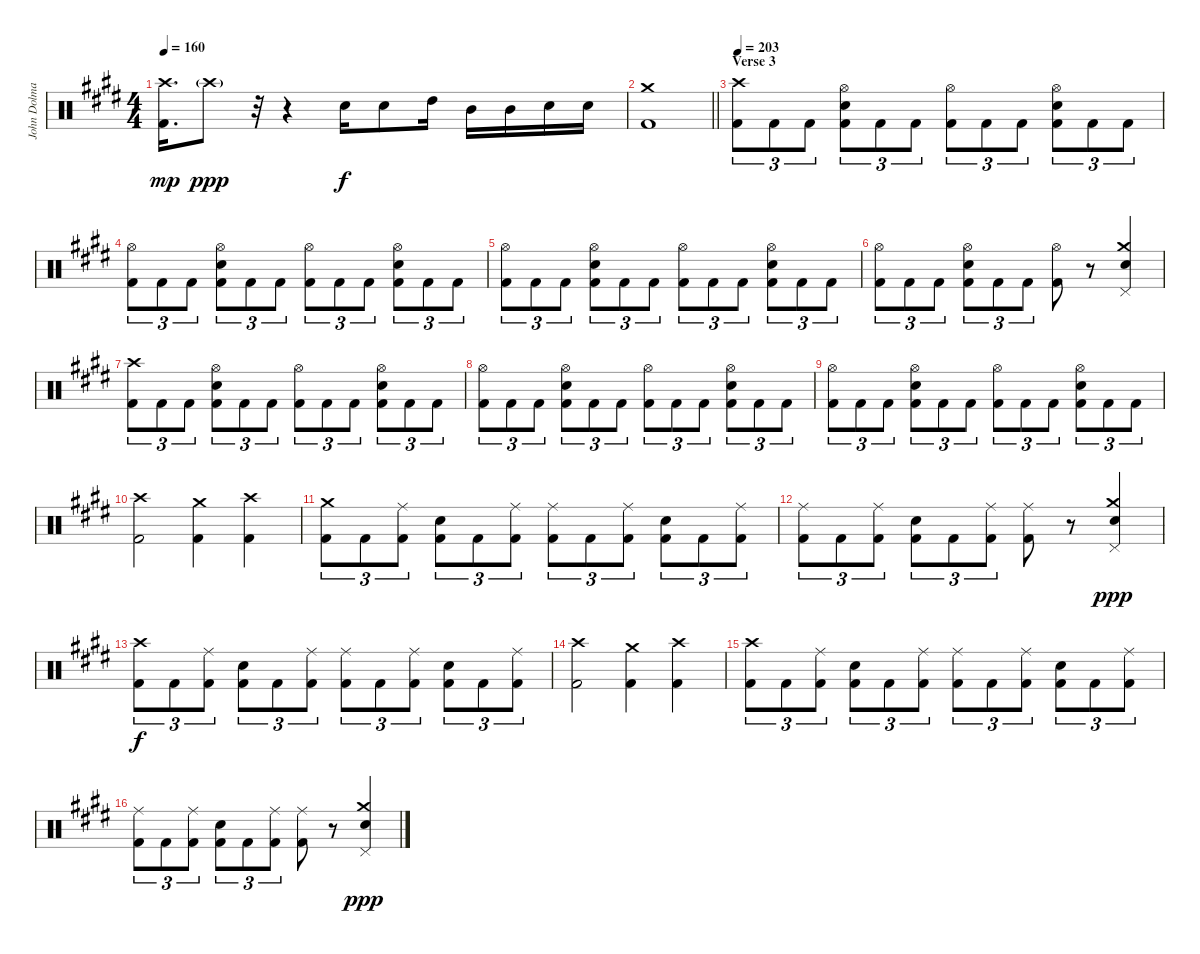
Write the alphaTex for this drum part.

\track ("John Dolmayan [Drums]" "John Dolma") {instrument percussion}
\staff {score}
\articulation defaults
\ts (4 4)
\tempo 160
\clef neutral
\ks c#minor
("Crash high (hit)" "Kick (hit) 2").16{d dy mp} "Crash high (hit)"{g}.8{dy ppp} r.32 r.4 "Electric Snare (hit)".16{dy f} "Electric Snare (hit)".8 "High Tom (hit)".16 "Mid Tom (hit)".16 "Mid Tom (hit)".16 "Electric Snare (hit)".16 "Electric Snare (hit)".16 |
\barLineRight lightlight
("Crash medium (hit)" "Kick (hit) 2").1 |
\section ("" "Verse 3")
\tempo 203
("Crash high (hit)" "Kick (hit) 2").8{tu (3 2)} "Kick (hit) 2".8{tu (3 2)} "Kick (hit) 2".8{tu (3 2)} ("Hi-Hat (open)" "Electric Snare (hit)" "Kick (hit) 2").8{tu (3 2)} "Kick (hit) 2".8{tu (3 2)} "Kick (hit) 2".8{tu (3 2)} ("Hi-Hat (open)" "Kick (hit) 2").8{tu (3 2)} "Kick (hit) 2".8{tu (3 2)} "Kick (hit) 2".8{tu (3 2)} ("Hi-Hat (open)" "Electric Snare (hit)" "Kick (hit) 2").8{tu (3 2)} "Kick (hit) 2".8{tu (3 2)} "Kick (hit) 2".8{tu (3 2)} |
("Hi-Hat (open)" "Kick (hit) 2").8{tu (3 2)} "Kick (hit) 2".8{tu (3 2)} "Kick (hit) 2".8{tu (3 2)} ("Hi-Hat (open)" "Electric Snare (hit)" "Kick (hit) 2").8{tu (3 2)} "Kick (hit) 2".8{tu (3 2)} "Kick (hit) 2".8{tu (3 2)} ("Hi-Hat (open)" "Kick (hit) 2").8{tu (3 2)} "Kick (hit) 2".8{tu (3 2)} "Kick (hit) 2".8{tu (3 2)} ("Hi-Hat (open)" "Electric Snare (hit)" "Kick (hit) 2").8{tu (3 2)} "Kick (hit) 2".8{tu (3 2)} "Kick (hit) 2".8{tu (3 2)} |
("Hi-Hat (open)" "Kick (hit) 2").8{tu (3 2)} "Kick (hit) 2".8{tu (3 2)} "Kick (hit) 2".8{tu (3 2)} ("Hi-Hat (open)" "Electric Snare (hit)" "Kick (hit) 2").8{tu (3 2)} "Kick (hit) 2".8{tu (3 2)} "Kick (hit) 2".8{tu (3 2)} ("Hi-Hat (open)" "Kick (hit) 2").8{tu (3 2)} "Kick (hit) 2".8{tu (3 2)} "Kick (hit) 2".8{tu (3 2)} ("Hi-Hat (open)" "Electric Snare (hit)" "Kick (hit) 2").8{tu (3 2)} "Kick (hit) 2".8{tu (3 2)} "Kick (hit) 2".8{tu (3 2)} |
("Hi-Hat (open)" "Kick (hit) 2").8{tu (3 2)} "Kick (hit) 2".8{tu (3 2)} "Kick (hit) 2".8{tu (3 2)} ("Hi-Hat (open)" "Electric Snare (hit)" "Kick (hit) 2").8{tu (3 2)} "Kick (hit) 2".8{tu (3 2)} "Kick (hit) 2".8{tu (3 2)} ("Hi-Hat (open)" "Kick (hit) 2").8 r.8 ("Crash medium (hit)" "Pedal Hi-Hat (hit)" "Electric Snare (hit)").4 |
("Crash high (hit)" "Kick (hit) 2").8{tu (3 2)} "Kick (hit) 2".8{tu (3 2)} "Kick (hit) 2".8{tu (3 2)} ("Hi-Hat (open)" "Electric Snare (hit)" "Kick (hit) 2").8{tu (3 2)} "Kick (hit) 2".8{tu (3 2)} "Kick (hit) 2".8{tu (3 2)} ("Hi-Hat (open)" "Kick (hit) 2").8{tu (3 2)} "Kick (hit) 2".8{tu (3 2)} "Kick (hit) 2".8{tu (3 2)} ("Hi-Hat (open)" "Electric Snare (hit)" "Kick (hit) 2").8{tu (3 2)} "Kick (hit) 2".8{tu (3 2)} "Kick (hit) 2".8{tu (3 2)} |
("Hi-Hat (open)" "Kick (hit) 2").8{tu (3 2)} "Kick (hit) 2".8{tu (3 2)} "Kick (hit) 2".8{tu (3 2)} ("Hi-Hat (open)" "Electric Snare (hit)" "Kick (hit) 2").8{tu (3 2)} "Kick (hit) 2".8{tu (3 2)} "Kick (hit) 2".8{tu (3 2)} ("Hi-Hat (open)" "Kick (hit) 2").8{tu (3 2)} "Kick (hit) 2".8{tu (3 2)} "Kick (hit) 2".8{tu (3 2)} ("Hi-Hat (open)" "Electric Snare (hit)" "Kick (hit) 2").8{tu (3 2)} "Kick (hit) 2".8{tu (3 2)} "Kick (hit) 2".8{tu (3 2)} |
("Hi-Hat (open)" "Kick (hit) 2").8{tu (3 2)} "Kick (hit) 2".8{tu (3 2)} "Kick (hit) 2".8{tu (3 2)} ("Hi-Hat (open)" "Electric Snare (hit)" "Kick (hit) 2").8{tu (3 2)} "Kick (hit) 2".8{tu (3 2)} "Kick (hit) 2".8{tu (3 2)} ("Hi-Hat (open)" "Kick (hit) 2").8{tu (3 2)} "Kick (hit) 2".8{tu (3 2)} "Kick (hit) 2".8{tu (3 2)} ("Hi-Hat (open)" "Electric Snare (hit)" "Kick (hit) 2").8{tu (3 2)} "Kick (hit) 2".8{tu (3 2)} "Kick (hit) 2".8{tu (3 2)} |
("Crash high (hit)" "Kick (hit) 2").2 ("Crash medium (hit)" "Kick (hit) 2").4 ("Crash high (hit)" "Kick (hit) 2").4 |
("Crash medium (hit)" "Kick (hit) 2").8{tu (3 2)} "Kick (hit) 2".8{tu (3 2)} ("Ride (middle)" "Kick (hit) 2").8{tu (3 2)} ("Electric Snare (hit)" "Kick (hit) 2").8{tu (3 2)} "Kick (hit) 2".8{tu (3 2)} ("Ride (middle)" "Kick (hit) 2").8{tu (3 2)} ("Ride (middle)" "Kick (hit) 2").8{tu (3 2)} "Kick (hit) 2".8{tu (3 2)} ("Ride (middle)" "Kick (hit) 2").8{tu (3 2)} ("Electric Snare (hit)" "Kick (hit) 2").8{tu (3 2)} "Kick (hit) 2".8{tu (3 2)} ("Ride (middle)" "Kick (hit) 2").8{tu (3 2)} |
("Ride (middle)" "Kick (hit) 2").8{tu (3 2)} "Kick (hit) 2".8{tu (3 2)} ("Ride (middle)" "Kick (hit) 2").8{tu (3 2)} ("Electric Snare (hit)" "Kick (hit) 2").8{tu (3 2)} "Kick (hit) 2".8{tu (3 2)} ("Ride (middle)" "Kick (hit) 2").8{tu (3 2)} ("Ride (middle)" "Kick (hit) 2").8 r.8 ("Crash medium (hit)" "Pedal Hi-Hat (hit)" "Electric Snare (hit)").4{dy ppp} |
("Crash high (hit)" "Kick (hit) 2").8{tu (3 2) dy f} "Kick (hit) 2".8{tu (3 2)} ("Ride (middle)" "Kick (hit) 2").8{tu (3 2)} ("Electric Snare (hit)" "Kick (hit) 2").8{tu (3 2)} "Kick (hit) 2".8{tu (3 2)} ("Ride (middle)" "Kick (hit) 2").8{tu (3 2)} ("Ride (middle)" "Kick (hit) 2").8{tu (3 2)} "Kick (hit) 2".8{tu (3 2)} ("Ride (middle)" "Kick (hit) 2").8{tu (3 2)} ("Electric Snare (hit)" "Kick (hit) 2").8{tu (3 2)} "Kick (hit) 2".8{tu (3 2)} ("Ride (middle)" "Kick (hit) 2").8{tu (3 2)} |
("Crash high (hit)" "Kick (hit) 2").2 ("Crash medium (hit)" "Kick (hit) 2").4 ("Crash high (hit)" "Kick (hit) 2").4 |
("Crash high (hit)" "Kick (hit) 2").8{tu (3 2)} "Kick (hit) 2".8{tu (3 2)} ("Ride (middle)" "Kick (hit) 2").8{tu (3 2)} ("Electric Snare (hit)" "Kick (hit) 2").8{tu (3 2)} "Kick (hit) 2".8{tu (3 2)} ("Ride (middle)" "Kick (hit) 2").8{tu (3 2)} ("Ride (middle)" "Kick (hit) 2").8{tu (3 2)} "Kick (hit) 2".8{tu (3 2)} ("Ride (middle)" "Kick (hit) 2").8{tu (3 2)} ("Electric Snare (hit)" "Kick (hit) 2").8{tu (3 2)} "Kick (hit) 2".8{tu (3 2)} ("Ride (middle)" "Kick (hit) 2").8{tu (3 2)} |
("Ride (middle)" "Kick (hit) 2").8{tu (3 2)} "Kick (hit) 2".8{tu (3 2)} ("Ride (middle)" "Kick (hit) 2").8{tu (3 2)} ("Electric Snare (hit)" "Kick (hit) 2").8{tu (3 2)} "Kick (hit) 2".8{tu (3 2)} ("Ride (middle)" "Kick (hit) 2").8{tu (3 2)} ("Ride (middle)" "Kick (hit) 2").8 r.8 ("Crash medium (hit)" "Pedal Hi-Hat (hit)" "Electric Snare (hit)").4{dy ppp}
